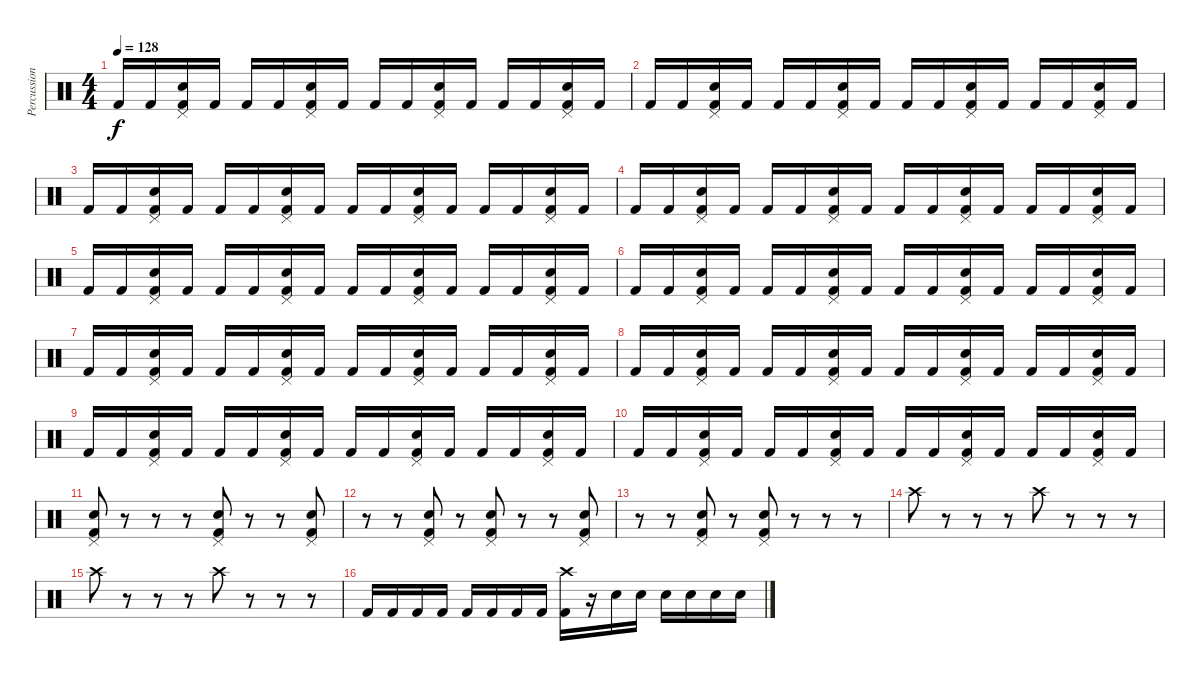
\track ("Percussion" "Percussion") {instrument percussion}
\staff {score}
\articulation defaults
\ts (4 4)
\tempo 128
\clef neutral
\ks c "Kick (hit) 2".16{dy f} "Kick (hit) 2".16
("Pedal Hi-Hat (hit)" "Snare (hit) 2" "Kick (hit) 2").16 "Kick (hit) 2".16 "Kick (hit) 2".16 "Kick (hit) 2".16 ("Pedal Hi-Hat (hit)" "Snare (hit) 2" "Kick (hit) 2").16 "Kick (hit) 2".16 "Kick (hit) 2".16 "Kick (hit) 2".16 ("Pedal Hi-Hat (hit)" "Snare (hit) 2" "Kick (hit) 2").16 "Kick (hit) 2".16 "Kick (hit) 2".16 "Kick (hit) 2".16 ("Pedal Hi-Hat (hit)" "Snare (hit) 2" "Kick (hit) 2").16 "Kick (hit) 2".16 |
"Kick (hit) 2".16 "Kick (hit) 2".16 ("Pedal Hi-Hat (hit)" "Snare (hit) 2" "Kick (hit) 2").16 "Kick (hit) 2".16 "Kick (hit) 2".16 "Kick (hit) 2".16 ("Pedal Hi-Hat (hit)" "Snare (hit) 2" "Kick (hit) 2").16 "Kick (hit) 2".16 "Kick (hit) 2".16 "Kick (hit) 2".16 ("Pedal Hi-Hat (hit)" "Snare (hit) 2" "Kick (hit) 2").16 "Kick (hit) 2".16 "Kick (hit) 2".16 "Kick (hit) 2".16 ("Pedal Hi-Hat (hit)" "Snare (hit) 2" "Kick (hit) 2").16 "Kick (hit) 2".16 |
"Kick (hit) 2".16 "Kick (hit) 2".16 ("Pedal Hi-Hat (hit)" "Snare (hit) 2" "Kick (hit) 2").16 "Kick (hit) 2".16 "Kick (hit) 2".16 "Kick (hit) 2".16 ("Pedal Hi-Hat (hit)" "Snare (hit) 2" "Kick (hit) 2").16 "Kick (hit) 2".16 "Kick (hit) 2".16 "Kick (hit) 2".16 ("Pedal Hi-Hat (hit)" "Snare (hit) 2" "Kick (hit) 2").16 "Kick (hit) 2".16 "Kick (hit) 2".16 "Kick (hit) 2".16 ("Pedal Hi-Hat (hit)" "Snare (hit) 2" "Kick (hit) 2").16 "Kick (hit) 2".16 |
"Kick (hit) 2".16 "Kick (hit) 2".16 ("Pedal Hi-Hat (hit)" "Snare (hit) 2" "Kick (hit) 2").16 "Kick (hit) 2".16 "Kick (hit) 2".16 "Kick (hit) 2".16 ("Pedal Hi-Hat (hit)" "Snare (hit) 2" "Kick (hit) 2").16 "Kick (hit) 2".16 "Kick (hit) 2".16 "Kick (hit) 2".16 ("Pedal Hi-Hat (hit)" "Snare (hit) 2" "Kick (hit) 2").16 "Kick (hit) 2".16 "Kick (hit) 2".16 "Kick (hit) 2".16 ("Pedal Hi-Hat (hit)" "Snare (hit) 2" "Kick (hit) 2").16 "Kick (hit) 2".16 |
"Kick (hit) 2".16 "Kick (hit) 2".16 ("Pedal Hi-Hat (hit)" "Snare (hit) 2" "Kick (hit) 2").16 "Kick (hit) 2".16 "Kick (hit) 2".16 "Kick (hit) 2".16 ("Pedal Hi-Hat (hit)" "Snare (hit) 2" "Kick (hit) 2").16 "Kick (hit) 2".16 "Kick (hit) 2".16 "Kick (hit) 2".16 ("Pedal Hi-Hat (hit)" "Snare (hit) 2" "Kick (hit) 2").16 "Kick (hit) 2".16 "Kick (hit) 2".16 "Kick (hit) 2".16 ("Pedal Hi-Hat (hit)" "Snare (hit) 2" "Kick (hit) 2").16 "Kick (hit) 2".16 |
"Kick (hit) 2".16 "Kick (hit) 2".16 ("Pedal Hi-Hat (hit)" "Snare (hit) 2" "Kick (hit) 2").16 "Kick (hit) 2".16 "Kick (hit) 2".16 "Kick (hit) 2".16 ("Pedal Hi-Hat (hit)" "Snare (hit) 2" "Kick (hit) 2").16 "Kick (hit) 2".16 "Kick (hit) 2".16 "Kick (hit) 2".16 ("Pedal Hi-Hat (hit)" "Snare (hit) 2" "Kick (hit) 2").16 "Kick (hit) 2".16 "Kick (hit) 2".16 "Kick (hit) 2".16 ("Pedal Hi-Hat (hit)" "Snare (hit) 2" "Kick (hit) 2").16 "Kick (hit) 2".16 |
"Kick (hit) 2".16 "Kick (hit) 2".16 ("Pedal Hi-Hat (hit)" "Snare (hit) 2" "Kick (hit) 2").16 "Kick (hit) 2".16 "Kick (hit) 2".16 "Kick (hit) 2".16 ("Pedal Hi-Hat (hit)" "Snare (hit) 2" "Kick (hit) 2").16 "Kick (hit) 2".16 "Kick (hit) 2".16 "Kick (hit) 2".16 ("Pedal Hi-Hat (hit)" "Snare (hit) 2" "Kick (hit) 2").16 "Kick (hit) 2".16 "Kick (hit) 2".16 "Kick (hit) 2".16 ("Pedal Hi-Hat (hit)" "Snare (hit) 2" "Kick (hit) 2").16 "Kick (hit) 2".16 |
"Kick (hit) 2".16 "Kick (hit) 2".16 ("Pedal Hi-Hat (hit)" "Snare (hit) 2" "Kick (hit) 2").16 "Kick (hit) 2".16 "Kick (hit) 2".16 "Kick (hit) 2".16 ("Pedal Hi-Hat (hit)" "Snare (hit) 2" "Kick (hit) 2").16 "Kick (hit) 2".16 "Kick (hit) 2".16 "Kick (hit) 2".16 ("Pedal Hi-Hat (hit)" "Snare (hit) 2" "Kick (hit) 2").16 "Kick (hit) 2".16 "Kick (hit) 2".16 "Kick (hit) 2".16 ("Pedal Hi-Hat (hit)" "Snare (hit) 2" "Kick (hit) 2").16 "Kick (hit) 2".16 |
"Kick (hit) 2".16 "Kick (hit) 2".16 ("Pedal Hi-Hat (hit)" "Snare (hit) 2" "Kick (hit) 2").16 "Kick (hit) 2".16 "Kick (hit) 2".16 "Kick (hit) 2".16 ("Pedal Hi-Hat (hit)" "Snare (hit) 2" "Kick (hit) 2").16 "Kick (hit) 2".16 "Kick (hit) 2".16 "Kick (hit) 2".16 ("Pedal Hi-Hat (hit)" "Snare (hit) 2" "Kick (hit) 2").16 "Kick (hit) 2".16 "Kick (hit) 2".16 "Kick (hit) 2".16 ("Pedal Hi-Hat (hit)" "Snare (hit) 2" "Kick (hit) 2").16 "Kick (hit) 2".16 |
"Kick (hit) 2".16 "Kick (hit) 2".16 ("Pedal Hi-Hat (hit)" "Snare (hit) 2" "Kick (hit) 2").16 "Kick (hit) 2".16 "Kick (hit) 2".16 "Kick (hit) 2".16 ("Pedal Hi-Hat (hit)" "Snare (hit) 2" "Kick (hit) 2").16 "Kick (hit) 2".16 "Kick (hit) 2".16 "Kick (hit) 2".16 ("Pedal Hi-Hat (hit)" "Snare (hit) 2" "Kick (hit) 2").16 "Kick (hit) 2".16 "Kick (hit) 2".16 "Kick (hit) 2".16 ("Pedal Hi-Hat (hit)" "Snare (hit) 2" "Kick (hit) 2").16 "Kick (hit) 2".16 |
("Pedal Hi-Hat (hit)" "Snare (hit) 2" "Kick (hit) 2").8 r.8 r.8 r.8 ("Pedal Hi-Hat (hit)" "Snare (hit) 2" "Kick (hit) 2").8 r.8 r.8 ("Pedal Hi-Hat (hit)" "Snare (hit) 2" "Kick (hit) 2").8 |
r.8 r.8 ("Pedal Hi-Hat (hit)" "Snare (hit) 2" "Kick (hit) 2").8 r.8 ("Pedal Hi-Hat (hit)" "Snare (hit) 2" "Kick (hit) 2").8 r.8 r.8 ("Pedal Hi-Hat (hit)" "Snare (hit) 2" "Kick (hit) 2").8 |
r.8 r.8 ("Pedal Hi-Hat (hit)" "Snare (hit) 2" "Kick (hit) 2").8 r.8 ("Pedal Hi-Hat (hit)" "Snare (hit) 2" "Kick (hit) 2").8 r.8 r.8 r.8 |
"Crash high (hit)".8 r.8 r.8 r.8 "Crash high (hit)".8 r.8 r.8 r.8 |
"Crash high (hit)".8 r.8 r.8 r.8 "Crash high (hit)".8 r.8 r.8 r.8 |
"Kick (hit) 2".16 "Kick (hit) 2".16 "Kick (hit) 2".16 "Kick (hit) 2".16 "Kick (hit) 2".16 "Kick (hit) 2".16 "Kick (hit) 2".16 "Kick (hit) 2".16 ("Crash high (hit)" "Kick (hit) 2").16 r.16 "Snare (hit) 2".16 "Snare (hit) 2".16 "Snare (hit) 2".16 "Snare (hit) 2".16 "Snare (hit) 2".16 "Snare (hit) 2".16
